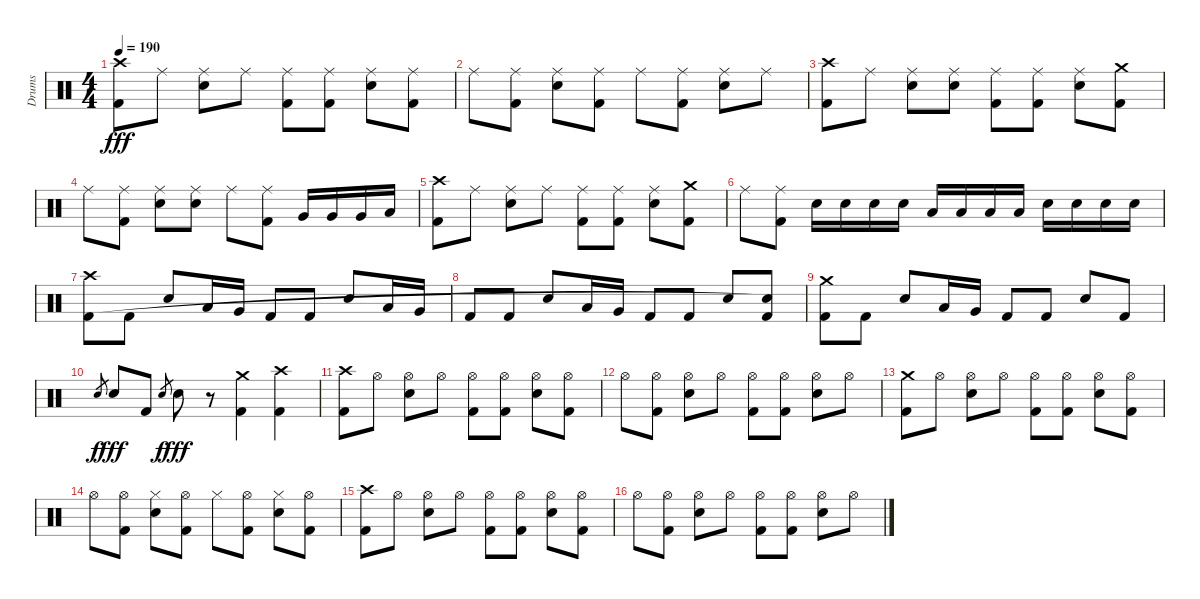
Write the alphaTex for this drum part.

\track ("Drums" "Drums") {instrument percussion}
\staff {score}
\articulation defaults
\ts (4 4)
\tempo 190
\clef neutral
\ks c
("Crash high (hit)" "Kick (hit) 2").8{dy fff} "Ride (middle)".8 ("Ride (middle)" "Electric Snare (hit)").8 "Ride (middle)".8 ("Ride (middle)" "Kick (hit) 2").8 ("Ride (middle)" "Kick (hit) 2").8 ("Ride (middle)" "Electric Snare (hit)").8 ("Ride (middle)" "Kick (hit) 2").8 |
"Ride (middle)".8 ("Ride (middle)" "Kick (hit) 2").8 ("Ride (middle)" "Electric Snare (hit)").8 ("Ride (middle)" "Kick (hit) 2").8 "Ride (middle)".8 ("Ride (middle)" "Kick (hit) 2").8 ("Ride (middle)" "Electric Snare (hit)").8 "Ride (middle)".8 |
("Crash high (hit)" "Kick (hit) 2").8 "Ride (middle)".8 ("Ride (middle)" "Electric Snare (hit)").8 ("Ride (middle)" "Electric Snare (hit)").8 ("Ride (middle)" "Kick (hit) 2").8 ("Ride (middle)" "Kick (hit) 2").8 ("Ride (middle)" "Electric Snare (hit)").8 ("Crash medium (hit)" "Kick (hit) 2").8 |
"Ride (middle)".8 ("Ride (middle)" "Kick (hit) 2").8 ("Ride (middle)" "Electric Snare (hit)").8 ("Ride (middle)" "Electric Snare (hit)").8 "Ride (middle)".8 ("Ride (middle)" "Kick (hit) 2").8 "Very Low Tom (hit)".16 "Very Low Tom (hit)".16 "Very Low Tom (hit)".16 "Low Floor Tom (hit)".16 |
("Crash high (hit)" "Kick (hit) 2").8 "Ride (middle)".8 ("Ride (middle)" "Electric Snare (hit)").8 "Ride (middle)".8 ("Ride (middle)" "Kick (hit) 2").8 ("Ride (middle)" "Kick (hit) 2").8 ("Ride (middle)" "Electric Snare (hit)").8 ("Crash medium (hit)" "Kick (hit) 2").8 |
"Ride (middle)".8 ("Ride (middle)" "Kick (hit) 2").8 "Electric Snare (hit)".16 "Electric Snare (hit)".16 "Electric Snare (hit)".16 "Electric Snare (hit)".16 "Low Tom (hit)".16 "Low Tom (hit)".16 "Low Tom (hit)".16 "Low Tom (hit)".16 "Electric Snare (hit)".16 "Electric Snare (hit)".16 "Electric Snare (hit)".16 "Electric Snare (hit)".16 |
("Crash high (hit)" "Kick (hit) 2").8 "Kick (hit) 2".8 "Electric Snare (hit)".8 "Low Tom (hit)".16 "Very Low Tom (hit)".16 "Kick (hit) 2".8 "Kick (hit) 2".8 "Electric Snare (hit)".8 "Low Tom (hit)".16 "Very Low Tom (hit)".16 |
"Kick (hit) 2".8 "Kick (hit) 2".8 "Electric Snare (hit)".8 "Low Tom (hit)".16 "Very Low Tom (hit)".16 "Kick (hit) 2".8 "Kick (hit) 2".8 "Electric Snare (hit)".8 ("Kick (hit) 2" "Snare (hit)"{t}).8 |
("Crash medium (hit)" "Kick (hit) 2").8 "Kick (hit) 2".8 "Electric Snare (hit)".8 "Low Tom (hit)".16 "Very Low Tom (hit)".16 "Kick (hit) 2".8 "Kick (hit) 2".8 "Electric Snare (hit)".8 "Kick (hit) 2".8 |
"Electric Snare (hit)".8{gr dy f} "Electric Snare (hit)".8{dy fff} "Kick (hit) 2".8 "Electric Snare (hit)".8{gr dy f} "Electric Snare (hit)".8{dy fff} r.8 ("Crash medium (hit)" "Kick (hit) 2").4 ("Crash high (hit)" "Kick (hit) 2").4 |
("Crash high (hit)" "Kick (hit) 2").8 "Hi-Hat (open)".8 ("Hi-Hat (open)" "Electric Snare (hit)").8 "Hi-Hat (open)".8 ("Hi-Hat (open)" "Kick (hit) 2").8 ("Hi-Hat (open)" "Kick (hit) 2").8 ("Hi-Hat (open)" "Electric Snare (hit)").8 ("Hi-Hat (open)" "Kick (hit) 2").8 |
"Hi-Hat (open)".8 ("Hi-Hat (open)" "Kick (hit) 2").8 ("Hi-Hat (open)" "Electric Snare (hit)").8 "Hi-Hat (open)".8 ("Hi-Hat (open)" "Kick (hit) 2").8 ("Hi-Hat (open)" "Kick (hit) 2").8 ("Hi-Hat (open)" "Electric Snare (hit)").8 "Hi-Hat (open)".8 |
("Crash medium (hit)" "Kick (hit) 2").8 "Hi-Hat (open)".8 ("Hi-Hat (open)" "Electric Snare (hit)").8 "Hi-Hat (open)".8 ("Hi-Hat (open)" "Kick (hit) 2").8 ("Hi-Hat (open)" "Kick (hit) 2").8 ("Hi-Hat (open)" "Electric Snare (hit)").8 ("Hi-Hat (open)" "Kick (hit) 2").8 |
"Hi-Hat (open)".8 ("Hi-Hat (open)" "Kick (hit) 2").8 ("Hi-Hat (closed)" "Electric Snare (hit)").8 ("Hi-Hat (open)" "Kick (hit) 2").8 "Hi-Hat (closed)".8 ("Hi-Hat (open)" "Kick (hit) 2").8 ("Hi-Hat (closed)" "Electric Snare (hit)").8 ("Hi-Hat (open)" "Kick (hit) 2").8 |
("Crash high (hit)" "Kick (hit) 2").8 "Hi-Hat (open)".8 ("Hi-Hat (open)" "Electric Snare (hit)").8 "Hi-Hat (open)".8 ("Hi-Hat (open)" "Kick (hit) 2").8 ("Hi-Hat (open)" "Kick (hit) 2").8 ("Hi-Hat (open)" "Electric Snare (hit)").8 ("Hi-Hat (open)" "Kick (hit) 2").8 |
"Hi-Hat (open)".8 ("Hi-Hat (open)" "Kick (hit) 2").8 ("Hi-Hat (open)" "Electric Snare (hit)").8 "Hi-Hat (open)".8 ("Hi-Hat (open)" "Kick (hit) 2").8 ("Hi-Hat (open)" "Kick (hit) 2").8 ("Hi-Hat (open)" "Electric Snare (hit)").8 "Hi-Hat (open)".8
